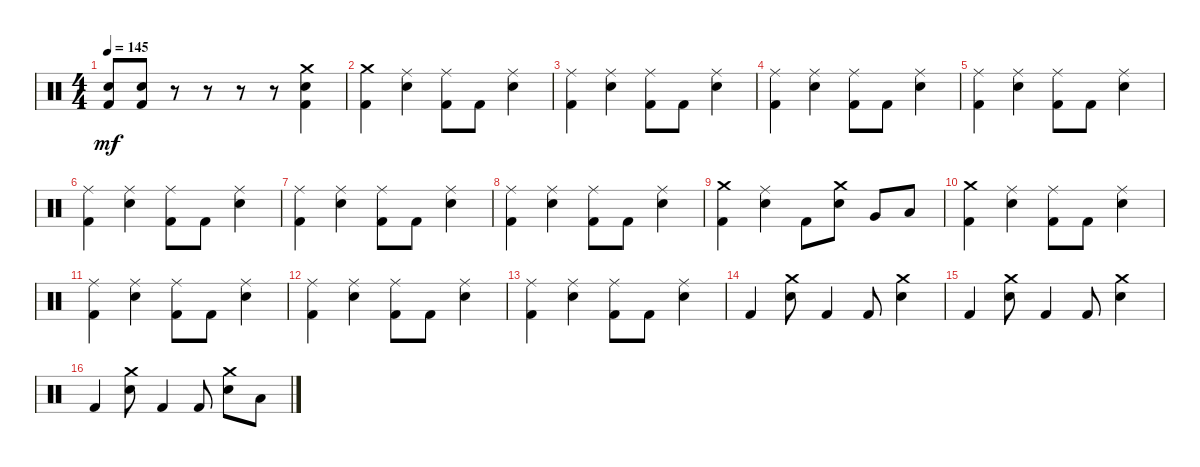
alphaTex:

\track "" {instrument percussion}
\staff {score}
\articulation defaults
\ts (4 4)
\tempo 145
\clef neutral
\ks c
("Snare (hit) 2" "Kick (hit) 2").8{dy mf} ("Snare (hit) 2" "Kick (hit) 2").8 r.8 r.8 r.8 r.8 ("Crash medium (hit)" "Snare (hit) 2" "Kick (hit) 2").4 |
("Crash medium (hit)" "Kick (hit) 2").4 ("Ride (middle)" "Snare (hit) 2").4 ("Ride (middle)" "Kick (hit) 2").8 "Kick (hit) 2".8 ("Ride (middle)" "Snare (hit) 2").4 |
("Ride (middle)" "Kick (hit) 2").4 ("Ride (middle)" "Snare (hit) 2").4 ("Ride (middle)" "Kick (hit) 2").8 "Kick (hit) 2".8 ("Ride (middle)" "Snare (hit) 2").4 |
("Ride (middle)" "Kick (hit) 2").4 ("Ride (middle)" "Snare (hit) 2").4 ("Ride (middle)" "Kick (hit) 2").8 "Kick (hit) 2".8 ("Ride (middle)" "Snare (hit) 2").4 |
("Ride (middle)" "Kick (hit) 2").4 ("Ride (middle)" "Snare (hit) 2").4 ("Ride (middle)" "Kick (hit) 2").8 "Kick (hit) 2".8 ("Ride (middle)" "Snare (hit) 2").4 |
("Ride (middle)" "Kick (hit) 2").4 ("Ride (middle)" "Snare (hit) 2").4 ("Ride (middle)" "Kick (hit) 2").8 "Kick (hit) 2".8 ("Ride (middle)" "Snare (hit) 2").4 |
("Ride (middle)" "Kick (hit) 2").4 ("Ride (middle)" "Snare (hit) 2").4 ("Ride (middle)" "Kick (hit) 2").8 "Kick (hit) 2".8 ("Ride (middle)" "Snare (hit) 2").4 |
("Ride (middle)" "Kick (hit) 2").4 ("Ride (middle)" "Snare (hit) 2").4 ("Ride (middle)" "Kick (hit) 2").8 "Kick (hit) 2".8 ("Ride (middle)" "Snare (hit) 2").4 |
("Crash medium (hit)" "Kick (hit) 2").4 ("Ride (middle)" "Snare (hit) 2").4 "Kick (hit) 2".8 ("Crash medium (hit)" "Snare (hit) 2").8 "Very Low Tom (hit)".8 "Low Floor Tom (hit)".8 |
("Crash medium (hit)" "Kick (hit) 2").4 ("Ride (middle)" "Snare (hit) 2").4 ("Ride (middle)" "Kick (hit) 2").8 "Kick (hit) 2".8 ("Ride (middle)" "Snare (hit) 2").4 |
("Ride (middle)" "Kick (hit) 2").4 ("Ride (middle)" "Snare (hit) 2").4 ("Ride (middle)" "Kick (hit) 2").8 "Kick (hit) 2".8 ("Ride (middle)" "Snare (hit) 2").4 |
("Ride (middle)" "Kick (hit) 2").4 ("Ride (middle)" "Snare (hit) 2").4 ("Ride (middle)" "Kick (hit) 2").8 "Kick (hit) 2".8 ("Ride (middle)" "Snare (hit) 2").4 |
("Ride (middle)" "Kick (hit) 2").4 ("Ride (middle)" "Snare (hit) 2").4 ("Ride (middle)" "Kick (hit) 2").8 "Kick (hit) 2".8 ("Ride (middle)" "Snare (hit) 2").4 |
"Kick (hit) 2".4 ("Crash medium (hit)" "Snare (hit) 2").8 "Kick (hit) 2".4 "Kick (hit) 2".8 ("Crash medium (hit)" "Snare (hit) 2").4 |
"Kick (hit) 2".4 ("Crash medium (hit)" "Snare (hit) 2").8 "Kick (hit) 2".4 "Kick (hit) 2".8 ("Crash medium (hit)" "Snare (hit) 2").4 |
"Kick (hit) 2".4 ("Crash medium (hit)" "Snare (hit) 2").8 "Kick (hit) 2".4 "Kick (hit) 2".8 ("Crash medium (hit)" "Snare (hit) 2").8 "Low Floor Tom (hit)".8
